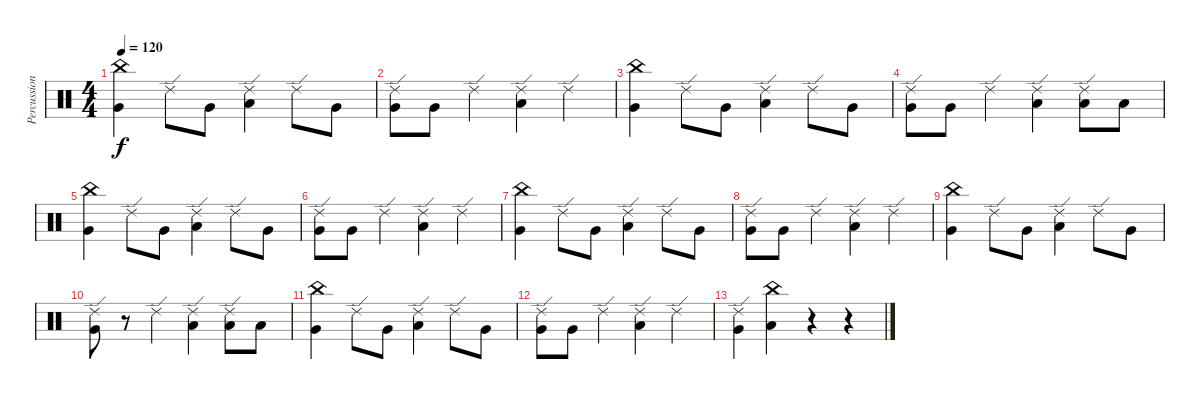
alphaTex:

\track ("Percussion" "Percussion") {instrument percussion}
\staff {score}
\articulation defaults
\ts (4 4)
\tempo 120
\clef neutral
\ks c
("China (hit)" "Very Low Tom (hit)").4{dy f} "Ride (edge) 2".8 "Very Low Tom (hit)".8 ("Ride (edge) 2" "Low Floor Tom (hit)").4 "Ride (edge) 2".8 "Very Low Tom (hit)".8 |
("Ride (edge) 2" "Very Low Tom (hit)").8 "Very Low Tom (hit)".8 "Ride (edge) 2".4 ("Ride (edge) 2" "Low Floor Tom (hit)").4 "Ride (edge) 2".4 |
("China (hit)" "Very Low Tom (hit)").4 "Ride (edge) 2".8 "Very Low Tom (hit)".8 ("Ride (edge) 2" "Low Floor Tom (hit)").4 "Ride (edge) 2".8 "Very Low Tom (hit)".8 |
("Ride (edge) 2" "Very Low Tom (hit)").8 "Very Low Tom (hit)".8 "Ride (edge) 2".4 ("Ride (edge) 2" "Low Floor Tom (hit)").4 ("Ride (edge) 2" "Low Floor Tom (hit)").8 "Low Floor Tom (hit)".8 |
("China (hit)" "Very Low Tom (hit)").4 "Ride (edge) 2".8 "Very Low Tom (hit)".8 ("Ride (edge) 2" "Low Floor Tom (hit)").4 "Ride (edge) 2".8 "Very Low Tom (hit)".8 |
("Ride (edge) 2" "Very Low Tom (hit)").8 "Very Low Tom (hit)".8 "Ride (edge) 2".4 ("Ride (edge) 2" "Low Floor Tom (hit)").4 "Ride (edge) 2".4 |
("China (hit)" "Very Low Tom (hit)").4 "Ride (edge) 2".8 "Very Low Tom (hit)".8 ("Ride (edge) 2" "Low Floor Tom (hit)").4 "Ride (edge) 2".8 "Very Low Tom (hit)".8 |
("Ride (edge) 2" "Very Low Tom (hit)").8 "Very Low Tom (hit)".8 "Ride (edge) 2".4 ("Ride (edge) 2" "Low Floor Tom (hit)").4 "Ride (edge) 2".4 |
("China (hit)" "Very Low Tom (hit)").4 "Ride (edge) 2".8 "Very Low Tom (hit)".8 ("Ride (edge) 2" "Low Floor Tom (hit)").4 "Ride (edge) 2".8 "Very Low Tom (hit)".8 |
("Ride (edge) 2" "Very Low Tom (hit)").8 r.8 "Ride (edge) 2".4 ("Ride (edge) 2" "Low Floor Tom (hit)").4 ("Ride (edge) 2" "Low Floor Tom (hit)").8 "Low Floor Tom (hit)".8 |
("China (hit)" "Very Low Tom (hit)").4 "Ride (edge) 2".8 "Very Low Tom (hit)".8 ("Ride (edge) 2" "Low Floor Tom (hit)").4 "Ride (edge) 2".8 "Very Low Tom (hit)".8 |
("Ride (edge) 2" "Very Low Tom (hit)").8 "Very Low Tom (hit)".8 "Ride (edge) 2".4 ("Ride (edge) 2" "Low Floor Tom (hit)").4 "Ride (edge) 2".4 |
("Ride (edge) 2" "Very Low Tom (hit)").4 ("China (hit)" "Low Floor Tom (hit)").4 r.4 r.4
